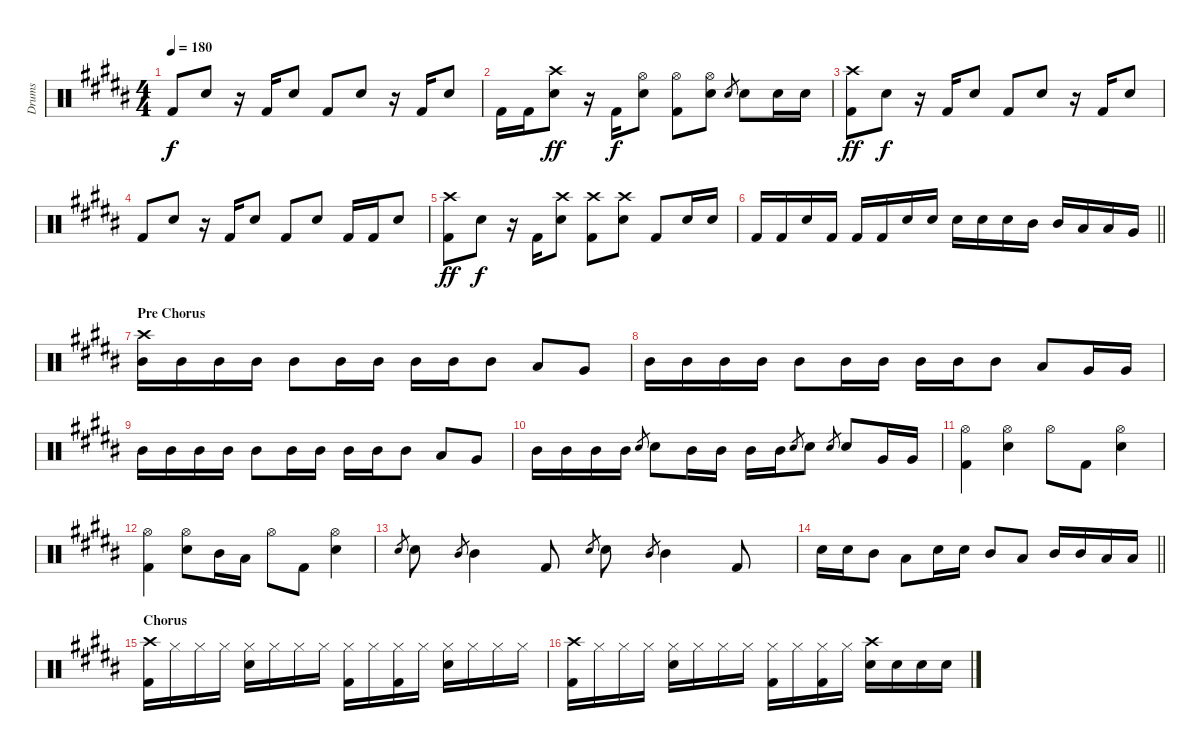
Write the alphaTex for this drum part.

\track ("Drums" "Drums") {instrument percussion}
\staff {score}
\articulation defaults
\ts (4 4)
\tempo 180
\clef neutral
\ks g#minor "Kick (hit) 2".8{dy f} "Snare (hit) 2".8
r.16 "Kick (hit) 2".16 "Snare (hit) 2".8 "Kick (hit) 2".8 "Snare (hit) 2".8 r.16 "Kick (hit) 2".16 "Snare (hit) 2".8 |
"Kick (hit) 2".16 "Kick (hit) 2".16 ("Snare (hit) 2" "Crash high (hit)").8{dy ff} r.16 "Kick (hit) 2".16{dy f} ("Snare (hit) 2" "Hi-Hat (open)").8 ("Kick (hit) 2" "Hi-Hat (open)").8 ("Snare (hit) 2" "Hi-Hat (open)").8 "Snare (hit) 2".8{gr} "Snare (hit) 2".8 "Snare (hit) 2".16 "Snare (hit) 2".16 |
("Kick (hit) 2" "Crash high (hit)").8{dy ff} "Snare (hit) 2".8{dy f} r.16 "Kick (hit) 2".16 "Snare (hit) 2".8 "Kick (hit) 2".8 "Snare (hit) 2".8 r.16 "Kick (hit) 2".16 "Snare (hit) 2".8 |
"Kick (hit) 2".8 "Snare (hit) 2".8 r.16 "Kick (hit) 2".16 "Snare (hit) 2".8 "Kick (hit) 2".8 "Snare (hit) 2".8 "Kick (hit) 2".16 "Kick (hit) 2".16 "Snare (hit) 2".8 |
("Kick (hit) 2" "Crash high (hit)").8{dy ff} "Snare (hit) 2".8{dy f} r.16 "Kick (hit) 2".16 ("Snare (hit) 2" "Crash high (hit)").8 ("Kick (hit) 2" "Crash high (hit)").8 ("Snare (hit) 2" "Crash high (hit)").8 "Kick (hit) 2".8 "Snare (hit) 2".16 "Snare (hit) 2".16 |
\barLineRight lightlight "Kick (hit) 2".16 "Kick (hit) 2".16 "Snare (hit) 2".16 "Kick (hit) 2".16 "Kick (hit) 2".16 "Kick (hit) 2".16 "Snare (hit) 2".16 "Snare (hit) 2".16 "Snare (hit) 2".16 "Snare (hit) 2".16 "Snare (hit) 2".16 "Mid Tom (hit)".16 "Mid Tom (hit)".16 "Low Tom (hit)".16 "Low Tom (hit)".16 "Very Low Tom (hit)".16
|
\section ("" "Pre Chorus")
("Crash high (hit)" "Mid Tom (hit)").16 "Mid Tom (hit)".16 "Mid Tom (hit)".16 "Mid Tom (hit)".16 "Mid Tom (hit)".8 "Mid Tom (hit)".16 "Mid Tom (hit)".16 "Mid Tom (hit)".16 "Mid Tom (hit)".16 "Mid Tom (hit)".8 "Low Tom (hit)".8 "Very Low Tom (hit)".8 |
"Mid Tom (hit)".16 "Mid Tom (hit)".16 "Mid Tom (hit)".16 "Mid Tom (hit)".16 "Mid Tom (hit)".8 "Mid Tom (hit)".16 "Mid Tom (hit)".16 "Mid Tom (hit)".16 "Mid Tom (hit)".16 "Mid Tom (hit)".8 "Low Tom (hit)".8 "Very Low Tom (hit)".16 "Very Low Tom (hit)".16 |
"Mid Tom (hit)".16 "Mid Tom (hit)".16 "Mid Tom (hit)".16 "Mid Tom (hit)".16 "Mid Tom (hit)".8 "Mid Tom (hit)".16 "Mid Tom (hit)".16 "Mid Tom (hit)".16 "Mid Tom (hit)".16 "Mid Tom (hit)".8 "Low Tom (hit)".8 "Very Low Tom (hit)".8 |
"Mid Tom (hit)".16 "Mid Tom (hit)".16 "Mid Tom (hit)".16 "Mid Tom (hit)".16 "Snare (hit) 2".8{gr} "Snare (hit) 2".8 "Mid Tom (hit)".16 "Mid Tom (hit)".16 "Mid Tom (hit)".16 "Mid Tom (hit)".16 "Snare (hit) 2".8{gr} "Snare (hit) 2".8 "Snare (hit) 2".8{gr} "Snare (hit) 2".8 "Very Low Tom (hit)".16 "Very Low Tom (hit)".16 |
("Hi-Hat (open)" "Kick (hit) 2").4 ("Hi-Hat (open)" "Snare (hit) 2").4 "Hi-Hat (open)".8 "Kick (hit) 2".8 ("Hi-Hat (open)" "Snare (hit) 2").4 |
("Hi-Hat (open)" "Kick (hit) 2").4 ("Hi-Hat (open)" "Snare (hit) 2").8 "Mid Tom (hit)".16 "Low Tom (hit)".16 "Hi-Hat (open)".8 "Kick (hit) 2".8 ("Hi-Hat (open)" "Snare (hit) 2").4 |
"Snare (hit) 2".8{gr} "Snare (hit) 2".8 "Mid Tom (hit)".8{gr} "Mid Tom (hit)".4 "Kick (hit) 2".8 "Snare (hit) 2".8{gr} "Snare (hit) 2".8 "Mid Tom (hit)".8{gr} "Mid Tom (hit)".4 "Kick (hit) 2".8 |
\barLineRight lightlight "Snare (hit) 2".16 "Snare (hit) 2".16 "Mid Tom (hit)".8 "Low Tom (hit)".8 "Snare (hit) 2".16 "Snare (hit) 2".16 "Mid Tom (hit)".8 "Low Tom (hit)".8 "Mid Tom (hit)".16 "Mid Tom (hit)".16 "Low Tom (hit)".16 "Low Tom (hit)".16
|
\section ("" "Chorus")
("Crash high (hit)" "Kick (hit) 2").16 "Hi-Hat (closed)".16 "Hi-Hat (closed)".16 "Hi-Hat (closed)".16 ("Hi-Hat (closed)" "Snare (hit) 2").16 "Hi-Hat (closed)".16 "Hi-Hat (closed)".16 "Hi-Hat (closed)".16 ("Hi-Hat (closed)" "Kick (hit) 2").16 "Hi-Hat (closed)".16 ("Hi-Hat (closed)" "Kick (hit) 2").16 "Hi-Hat (closed)".16 ("Hi-Hat (closed)" "Snare (hit) 2").16 "Hi-Hat (closed)".16 "Hi-Hat (closed)".16 "Hi-Hat (closed)".16 |
("Crash high (hit)" "Kick (hit) 2").16 "Hi-Hat (closed)".16 "Hi-Hat (closed)".16 "Hi-Hat (closed)".16 ("Hi-Hat (closed)" "Snare (hit) 2").16 "Hi-Hat (closed)".16 "Hi-Hat (closed)".16 "Hi-Hat (closed)".16 ("Hi-Hat (closed)" "Kick (hit) 2").16 "Hi-Hat (closed)".16 ("Hi-Hat (closed)" "Kick (hit) 2").16 "Hi-Hat (closed)".16 ("Crash high (hit)" "Snare (hit) 2").16 "Snare (hit) 2".16 "Snare (hit) 2".16 "Snare (hit) 2".16
